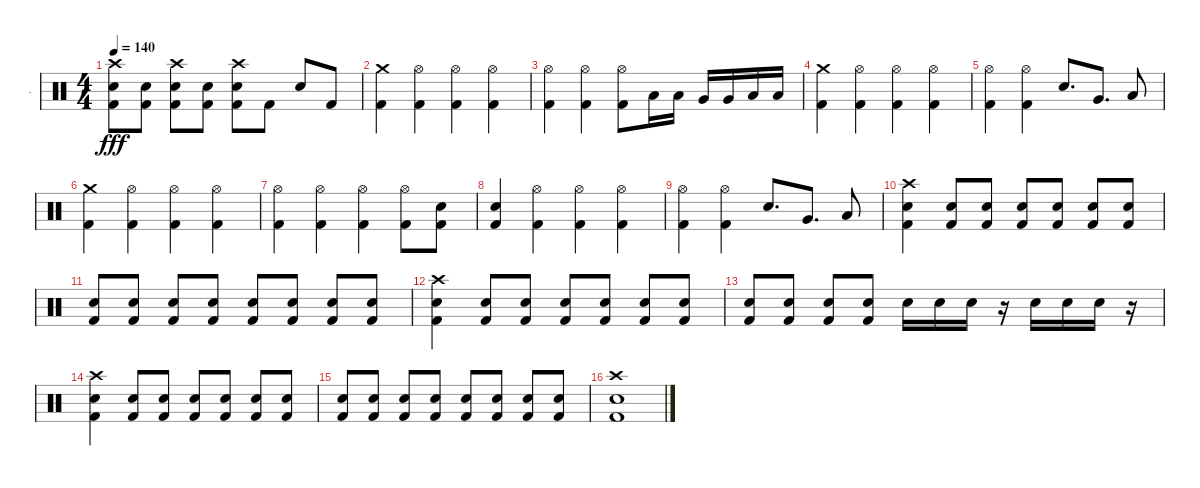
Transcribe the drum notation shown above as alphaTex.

\track ("." ".") {instrument percussion}
\staff {score}
\articulation defaults
\ts (4 4)
\tempo 140
\clef neutral
\ks c
("Crash high (hit)" "Electric Snare (hit)" "Kick (hit) 2").8{dy fff} ("Electric Snare (hit)" "Kick (hit) 2").8 ("Crash high (hit)" "Electric Snare (hit)" "Kick (hit) 2").8 ("Electric Snare (hit)" "Kick (hit) 2").8 ("Crash high (hit)" "Electric Snare (hit)" "Kick (hit) 2").8 "Kick (hit) 2".8 "Electric Snare (hit)".8 "Kick (hit) 2".8 |
("Crash medium (hit)" "Kick (hit) 2").4 ("Hi-Hat (open)" "Kick (hit) 2").4 ("Hi-Hat (open)" "Kick (hit) 2").4 ("Hi-Hat (open)" "Kick (hit) 2").4 |
("Hi-Hat (open)" "Kick (hit) 2").4 ("Hi-Hat (open)" "Kick (hit) 2").4 ("Hi-Hat (open)" "Kick (hit) 2").8 "Low Tom (hit)".16 "Low Tom (hit)".16 "Very Low Tom (hit)".16 "Very Low Tom (hit)".16 "Low Floor Tom (hit)".16 "Low Floor Tom (hit)".16 |
("Crash medium (hit)" "Kick (hit) 2").4 ("Hi-Hat (open)" "Kick (hit) 2").4 ("Hi-Hat (open)" "Kick (hit) 2").4 ("Hi-Hat (open)" "Kick (hit) 2").4 |
("Hi-Hat (open)" "Kick (hit) 2").4 ("Hi-Hat (open)" "Kick (hit) 2").4 "Electric Snare (hit)".8{d} "Very Low Tom (hit)".8{d} "Low Floor Tom (hit)".8 |
("Crash medium (hit)" "Kick (hit) 2").4 ("Hi-Hat (open)" "Kick (hit) 2").4 ("Hi-Hat (open)" "Kick (hit) 2").4 ("Hi-Hat (open)" "Kick (hit) 2").4 |
("Hi-Hat (open)" "Kick (hit) 2").4 ("Hi-Hat (open)" "Kick (hit) 2").4 ("Hi-Hat (open)" "Kick (hit) 2").4 ("Hi-Hat (open)" "Kick (hit) 2").8 ("Electric Snare (hit)" "Kick (hit) 2").8 |
("Electric Snare (hit)" "Kick (hit) 2").4 ("Hi-Hat (open)" "Kick (hit) 2").4 ("Hi-Hat (open)" "Kick (hit) 2").4 ("Hi-Hat (open)" "Kick (hit) 2").4 |
("Hi-Hat (open)" "Kick (hit) 2").4 ("Hi-Hat (open)" "Kick (hit) 2").4 "Electric Snare (hit)".8{d} "Very Low Tom (hit)".8{d} "Low Floor Tom (hit)".8 |
("Crash high (hit)" "Electric Snare (hit)" "Kick (hit) 2").4 ("Electric Snare (hit)" "Kick (hit) 2").8 ("Electric Snare (hit)" "Kick (hit) 2").8 ("Electric Snare (hit)" "Kick (hit) 2").8 ("Electric Snare (hit)" "Kick (hit) 2").8 ("Electric Snare (hit)" "Kick (hit) 2").8 ("Electric Snare (hit)" "Kick (hit) 2").8 |
("Electric Snare (hit)" "Kick (hit) 2").8 ("Electric Snare (hit)" "Kick (hit) 2").8 ("Electric Snare (hit)" "Kick (hit) 2").8 ("Electric Snare (hit)" "Kick (hit) 2").8 ("Electric Snare (hit)" "Kick (hit) 2").8 ("Electric Snare (hit)" "Kick (hit) 2").8 ("Electric Snare (hit)" "Kick (hit) 2").8 ("Electric Snare (hit)" "Kick (hit) 2").8 |
("Crash high (hit)" "Electric Snare (hit)" "Kick (hit) 2").4 ("Electric Snare (hit)" "Kick (hit) 2").8 ("Electric Snare (hit)" "Kick (hit) 2").8 ("Electric Snare (hit)" "Kick (hit) 2").8 ("Electric Snare (hit)" "Kick (hit) 2").8 ("Electric Snare (hit)" "Kick (hit) 2").8 ("Electric Snare (hit)" "Kick (hit) 2").8 |
("Electric Snare (hit)" "Kick (hit) 2").8 ("Electric Snare (hit)" "Kick (hit) 2").8 ("Electric Snare (hit)" "Kick (hit) 2").8 ("Electric Snare (hit)" "Kick (hit) 2").8 "Electric Snare (hit)".16 "Electric Snare (hit)".16 "Electric Snare (hit)".16 r.16 "Electric Snare (hit)".16 "Electric Snare (hit)".16 "Electric Snare (hit)".16 r.16 |
("Crash high (hit)" "Electric Snare (hit)" "Kick (hit) 2").4 ("Electric Snare (hit)" "Kick (hit) 2").8 ("Electric Snare (hit)" "Kick (hit) 2").8 ("Electric Snare (hit)" "Kick (hit) 2").8 ("Electric Snare (hit)" "Kick (hit) 2").8 ("Electric Snare (hit)" "Kick (hit) 2").8 ("Electric Snare (hit)" "Kick (hit) 2").8 |
("Electric Snare (hit)" "Kick (hit) 2").8 ("Electric Snare (hit)" "Kick (hit) 2").8 ("Electric Snare (hit)" "Kick (hit) 2").8 ("Electric Snare (hit)" "Kick (hit) 2").8 ("Electric Snare (hit)" "Kick (hit) 2").8 ("Electric Snare (hit)" "Kick (hit) 2").8 ("Electric Snare (hit)" "Kick (hit) 2").8 ("Electric Snare (hit)" "Kick (hit) 2").8 |
("Crash high (hit)" "Electric Snare (hit)" "Kick (hit) 2").1
